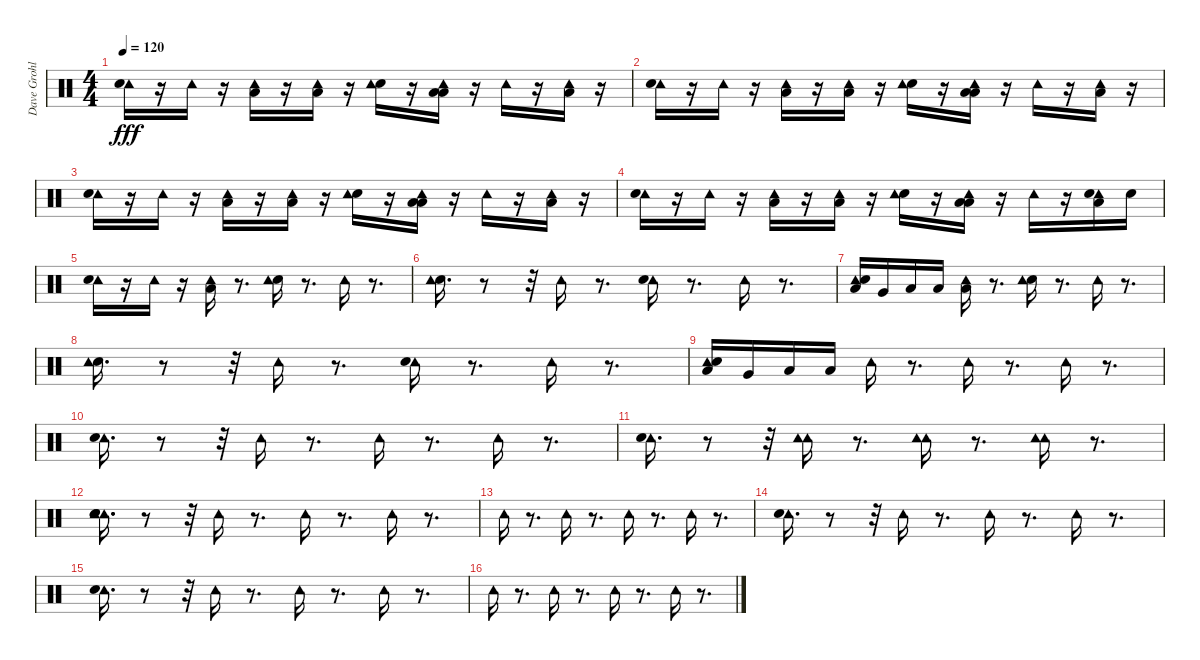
\track ("Dave Grohl " "Dave Grohl") {instrument percussion}
\staff {score}
\articulation defaults
\ts (4 4)
\tempo 120
\clef neutral
\ks c
("Tambourine (hit)" "Snare (hit) 2").16{dy fff} r.16 "Tambourine (hit)".16 r.16 ("Low Floor Tom (hit)" "Tambourine (hit)").16 r.16 ("Low Floor Tom (hit)" "Tambourine (hit)").16 r.16 ("Snare (hit) 2" "Tambourine (hit)").16 r.16 ("Tambourine (hit)" "Low Floor Tom (hit)" "Low Tom (hit)").16 r.16 "Tambourine (hit)".16 r.16 ("Tambourine (hit)" "Low Floor Tom (hit)").16 r.16 |
("Tambourine (hit)" "Snare (hit) 2").16 r.16 "Tambourine (hit)".16 r.16 ("Low Floor Tom (hit)" "Tambourine (hit)").16 r.16 ("Low Floor Tom (hit)" "Tambourine (hit)").16 r.16 ("Snare (hit) 2" "Tambourine (hit)").16 r.16 ("Tambourine (hit)" "Low Floor Tom (hit)" "Low Tom (hit)").16 r.16 "Tambourine (hit)".16 r.16 ("Tambourine (hit)" "Low Floor Tom (hit)").16 r.16 |
("Tambourine (hit)" "Snare (hit) 2").16 r.16 "Tambourine (hit)".16 r.16 ("Low Floor Tom (hit)" "Tambourine (hit)").16 r.16 ("Low Floor Tom (hit)" "Tambourine (hit)").16 r.16 ("Snare (hit) 2" "Tambourine (hit)").16 r.16 ("Tambourine (hit)" "Low Floor Tom (hit)" "Low Tom (hit)").16 r.16 "Tambourine (hit)".16 r.16 ("Tambourine (hit)" "Low Floor Tom (hit)").16 r.16 |
("Tambourine (hit)" "Snare (hit) 2").16 r.16 "Tambourine (hit)".16 r.16 ("Low Floor Tom (hit)" "Tambourine (hit)").16 r.16 ("Low Floor Tom (hit)" "Tambourine (hit)").16 r.16 ("Snare (hit) 2" "Tambourine (hit)").16 r.16 ("Tambourine (hit)" "Low Floor Tom (hit)" "Low Tom (hit)").16 r.16 "Tambourine (hit)".16 r.16 ("Tambourine (hit)" "Low Floor Tom (hit)" "Snare (hit) 2").16 "Snare (hit) 2".16 |
("Tambourine (hit)" "Snare (hit) 2").16 r.16 "Tambourine (hit)".16 r.16 ("Low Floor Tom (hit)" "Tambourine (hit)").16 r.8{d} ("Hand Clap (hit)" "Tambourine (hit)").16 r.8{d} "Tambourine (hit)".16 r.8{d} |
("Hand Clap (hit)" "Tambourine (hit)").16{d} r.8 r.32 "Tambourine (hit)".16 r.8{d} ("Tambourine (hit)" "Hand Clap (hit)").16 r.8{d} "Tambourine (hit)".16 r.8{d} |
("Tambourine (hit)" "Hand Clap (hit)" "Low Tom (hit)").16 "Very Low Tom (hit)".16 "Low Floor Tom (hit)".16 "Low Floor Tom (hit)".16 ("Low Floor Tom (hit)" "Tambourine (hit)").16 r.8{d} ("Hand Clap (hit)" "Tambourine (hit)").16 r.8{d} "Tambourine (hit)".16 r.8{d} |
("Hand Clap (hit)" "Tambourine (hit)").16{d} r.8 r.32 "Tambourine (hit)".16 r.8{d} ("Tambourine (hit)" "Hand Clap (hit)").16 r.8{d} "Tambourine (hit)".16 r.8{d} |
("Tambourine (hit)" "Hand Clap (hit)" "Low Tom (hit)").16 "Very Low Tom (hit)".16 "Low Floor Tom (hit)".16 "Low Floor Tom (hit)".16 "Tambourine (hit)".16 r.8{d} "Tambourine (hit)".16 r.8{d} "Tambourine (hit)".16 r.8{d} |
("Tambourine (hit)" "Hand Clap (hit)").16{d} r.8 r.32 "Tambourine (hit)".16 r.8{d} "Tambourine (hit)".16 r.8{d} "Tambourine (hit)".16 r.8{d} |
("Tambourine (hit)" "Hand Clap (hit)").16{d} r.8 r.32 ("Tambourine (hit)" "Tambourine (hit)").16 r.8{d} ("Tambourine (hit)" "Tambourine (hit)").16 r.8{d} ("Tambourine (hit)" "Tambourine (hit)").16 r.8{d} |
("Tambourine (hit)" "Hand Clap (hit)" "Tambourine (hit)" "Hand Clap (hit)").16{d} r.8 r.32 "Tambourine (hit)".16 r.8{d} "Tambourine (hit)".16 r.8{d} "Tambourine (hit)".16 r.8{d} |
"Tambourine (hit)".16 r.8{d} "Tambourine (hit)".16 r.8{d} "Tambourine (hit)".16 r.8{d} "Tambourine (hit)".16 r.8{d} |
("Tambourine (hit)" "Hand Clap (hit)").16{d} r.8 r.32 "Tambourine (hit)".16 r.8{d} "Tambourine (hit)".16 r.8{d} "Tambourine (hit)".16 r.8{d} |
("Tambourine (hit)" "Hand Clap (hit)").16{d} r.8 r.32 "Tambourine (hit)".16 r.8{d} "Tambourine (hit)".16 r.8{d} "Tambourine (hit)".16 r.8{d} |
"Tambourine (hit)".16 r.8{d} "Tambourine (hit)".16 r.8{d} "Tambourine (hit)".16 r.8{d} "Tambourine (hit)".16 r.8{d}
